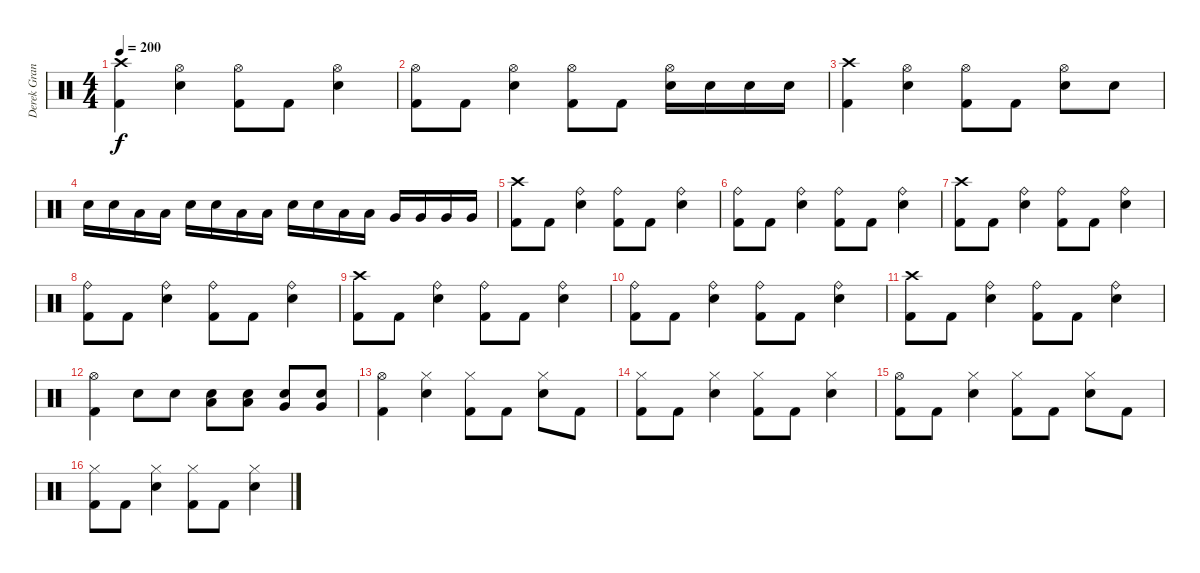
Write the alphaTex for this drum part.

\track ("Derek Grant" "Derek Gran") {instrument percussion}
\staff {score}
\articulation defaults
\ts (4 4)
\tempo 200
\clef neutral
\ks c
("Crash high (hit)" "Kick (hit) 2").4{dy f} ("Hi-Hat (open)" "Electric Snare (hit)").4 ("Hi-Hat (open)" "Kick (hit) 2").8 "Kick (hit) 2".8 ("Hi-Hat (open)" "Electric Snare (hit)").4 |
("Hi-Hat (open)" "Kick (hit) 2").8 "Kick (hit) 2".8 ("Hi-Hat (open)" "Electric Snare (hit)").4 ("Hi-Hat (open)" "Kick (hit) 2").8 "Kick (hit) 2".8 ("Hi-Hat (open)" "Electric Snare (hit)").16 "Electric Snare (hit)".16 "Electric Snare (hit)".16 "Electric Snare (hit)".16 |
("Crash high (hit)" "Kick (hit) 2").4 ("Hi-Hat (open)" "Electric Snare (hit)").4 ("Hi-Hat (open)" "Kick (hit) 2").8 "Kick (hit) 2".8 ("Hi-Hat (open)" "Electric Snare (hit)").8 "Electric Snare (hit)".8 |
"Electric Snare (hit)".16 "Electric Snare (hit)".16 "Low Tom (hit)".16 "Low Tom (hit)".16 "Electric Snare (hit)".16 "Electric Snare (hit)".16 "Low Tom (hit)".16 "Low Tom (hit)".16 "Electric Snare (hit)".16 "Electric Snare (hit)".16 "Low Tom (hit)".16 "Low Tom (hit)".16 "Very Low Tom (hit)".16 "Very Low Tom (hit)".16 "Very Low Tom (hit)".16 "Very Low Tom (hit)".16 |
("Crash high (hit)" "Kick (hit) 2").8 "Kick (hit) 2".8 ("Ride (bell)" "Electric Snare (hit)").4 ("Ride (bell)" "Kick (hit) 2").8 "Kick (hit) 2".8 ("Ride (bell)" "Electric Snare (hit)").4 |
("Ride (bell)" "Kick (hit) 2").8 "Kick (hit) 2".8 ("Ride (bell)" "Electric Snare (hit)").4 ("Ride (bell)" "Kick (hit) 2").8 "Kick (hit) 2".8 ("Ride (bell)" "Electric Snare (hit)").4 |
("Crash high (hit)" "Kick (hit) 2").8 "Kick (hit) 2".8 ("Ride (bell)" "Electric Snare (hit)").4 ("Ride (bell)" "Kick (hit) 2").8 "Kick (hit) 2".8 ("Ride (bell)" "Electric Snare (hit)").4 |
("Ride (bell)" "Kick (hit) 2").8 "Kick (hit) 2".8 ("Ride (bell)" "Electric Snare (hit)").4 ("Ride (bell)" "Kick (hit) 2").8 "Kick (hit) 2".8 ("Ride (bell)" "Electric Snare (hit)").4 |
("Crash high (hit)" "Kick (hit) 2").8 "Kick (hit) 2".8 ("Ride (bell)" "Electric Snare (hit)").4 ("Ride (bell)" "Kick (hit) 2").8 "Kick (hit) 2".8 ("Ride (bell)" "Electric Snare (hit)").4 |
("Ride (bell)" "Kick (hit) 2").8 "Kick (hit) 2".8 ("Ride (bell)" "Electric Snare (hit)").4 ("Ride (bell)" "Kick (hit) 2").8 "Kick (hit) 2".8 ("Ride (bell)" "Electric Snare (hit)").4 |
("Crash high (hit)" "Kick (hit) 2").8 "Kick (hit) 2".8 ("Ride (bell)" "Electric Snare (hit)").4 ("Ride (bell)" "Kick (hit) 2").8 "Kick (hit) 2".8 ("Ride (bell)" "Electric Snare (hit)").4 |
("Hi-Hat (open)" "Kick (hit) 2").4 "Electric Snare (hit)".8 "Electric Snare (hit)".8 ("Low Tom (hit)" "Electric Snare (hit)").8 ("Low Tom (hit)" "Electric Snare (hit)").8 ("Very Low Tom (hit)" "Electric Snare (hit)").8 ("Very Low Tom (hit)" "Electric Snare (hit)").8 |
("Hi-Hat (open)" "Kick (hit) 2").4 ("Hi-Hat (closed)" "Electric Snare (hit)").4 ("Hi-Hat (closed)" "Kick (hit) 2").8 "Kick (hit) 2".8 ("Hi-Hat (closed)" "Electric Snare (hit)").8 "Kick (hit) 2".8 |
("Hi-Hat (closed)" "Kick (hit) 2").8 "Kick (hit) 2".8 ("Hi-Hat (closed)" "Electric Snare (hit)").4 ("Hi-Hat (closed)" "Kick (hit) 2").8 "Kick (hit) 2".8 ("Hi-Hat (closed)" "Electric Snare (hit)").4 |
("Hi-Hat (open)" "Kick (hit) 2").8 "Kick (hit) 2".8 ("Hi-Hat (closed)" "Electric Snare (hit)").4 ("Hi-Hat (closed)" "Kick (hit) 2").8 "Kick (hit) 2".8 ("Hi-Hat (closed)" "Electric Snare (hit)").8 "Kick (hit) 2".8 |
("Hi-Hat (closed)" "Kick (hit) 2").8 "Kick (hit) 2".8 ("Hi-Hat (closed)" "Electric Snare (hit)").4 ("Hi-Hat (closed)" "Kick (hit) 2").8 "Kick (hit) 2".8 ("Hi-Hat (closed)" "Electric Snare (hit)").4
